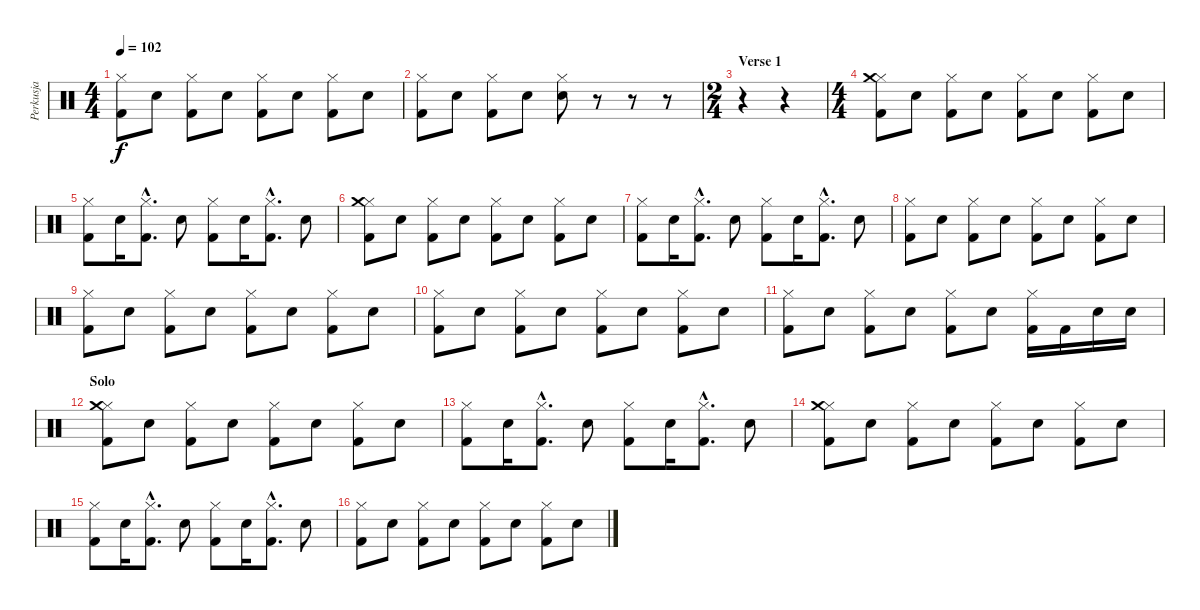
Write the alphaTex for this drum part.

\track ("Perkusja" "Perkusja") {instrument percussion}
\staff {score}
\articulation defaults
\ts (4 4)
\tempo 102
\clef neutral
\ks c
("Kick (hit) 2" "Hi-Hat (closed)").8{dy f} "Snare (hit) 2".8 ("Kick (hit) 2" "Hi-Hat (closed)").8 "Snare (hit) 2".8 ("Kick (hit) 2" "Hi-Hat (closed)").8 "Snare (hit) 2".8 ("Kick (hit) 2" "Hi-Hat (closed)").8 "Snare (hit) 2".8 |
("Kick (hit) 2" "Hi-Hat (closed)").8 "Snare (hit) 2".8 ("Kick (hit) 2" "Hi-Hat (closed)").8 "Snare (hit) 2".8 ("Snare (hit) 2" "Hi-Hat (closed)").8 r.8 r.8 r.8 |
\ts (2 4)
\section ("" "Verse 1")
r.4 r.4 |
\ts (4 4)
("Kick (hit) 2" "Hi-Hat (closed)" "Crash medium (hit)").8 "Snare (hit) 2".8 ("Kick (hit) 2" "Hi-Hat (closed)").8 "Snare (hit) 2".8 ("Kick (hit) 2" "Hi-Hat (closed)").8 "Snare (hit) 2".8 ("Kick (hit) 2" "Hi-Hat (closed)").8 "Snare (hit) 2".8 |
("Kick (hit) 2" "Hi-Hat (closed)").8 "Snare (hit) 2".16 ("Kick (hit) 2"{hac} "Hi-Hat (closed)"{hac}).8{d} "Snare (hit) 2".8 ("Kick (hit) 2" "Hi-Hat (closed)").8 "Snare (hit) 2".16 ("Kick (hit) 2"{hac} "Hi-Hat (closed)"{hac}).8{d} "Snare (hit) 2".8 |
("Kick (hit) 2" "Hi-Hat (closed)" "Crash medium (hit)").8 "Snare (hit) 2".8 ("Kick (hit) 2" "Hi-Hat (closed)").8 "Snare (hit) 2".8 ("Kick (hit) 2" "Hi-Hat (closed)").8 "Snare (hit) 2".8 ("Kick (hit) 2" "Hi-Hat (closed)").8 "Snare (hit) 2".8 |
("Kick (hit) 2" "Hi-Hat (closed)").8 "Snare (hit) 2".16 ("Kick (hit) 2"{hac} "Hi-Hat (closed)"{hac}).8{d} "Snare (hit) 2".8 ("Kick (hit) 2" "Hi-Hat (closed)").8 "Snare (hit) 2".16 ("Kick (hit) 2"{hac} "Hi-Hat (closed)"{hac}).8{d} "Snare (hit) 2".8 |
("Kick (hit) 2" "Hi-Hat (closed)").8 "Snare (hit) 2".8 ("Kick (hit) 2" "Hi-Hat (closed)").8 "Snare (hit) 2".8 ("Kick (hit) 2" "Hi-Hat (closed)").8 "Snare (hit) 2".8 ("Kick (hit) 2" "Hi-Hat (closed)").8 "Snare (hit) 2".8 |
("Kick (hit) 2" "Hi-Hat (closed)").8 "Snare (hit) 2".8 ("Kick (hit) 2" "Hi-Hat (closed)").8 "Snare (hit) 2".8 ("Kick (hit) 2" "Hi-Hat (closed)").8 "Snare (hit) 2".8 ("Kick (hit) 2" "Hi-Hat (closed)").8 "Snare (hit) 2".8 |
("Kick (hit) 2" "Hi-Hat (closed)").8 "Snare (hit) 2".8 ("Kick (hit) 2" "Hi-Hat (closed)").8 "Snare (hit) 2".8 ("Kick (hit) 2" "Hi-Hat (closed)").8 "Snare (hit) 2".8 ("Kick (hit) 2" "Hi-Hat (closed)").8 "Snare (hit) 2".8 |
("Kick (hit) 2" "Hi-Hat (closed)").8 "Snare (hit) 2".8 ("Kick (hit) 2" "Hi-Hat (closed)").8 "Snare (hit) 2".8 ("Kick (hit) 2" "Hi-Hat (closed)").8 "Snare (hit) 2".8 ("Kick (hit) 2" "Hi-Hat (closed)").16 "Kick (hit) 2".16 "Snare (hit) 2".16 "Snare (hit) 2".16 |
\section ("" "Solo")
("Kick (hit) 2" "Hi-Hat (closed)" "Crash medium (hit)").8 "Snare (hit) 2".8 ("Kick (hit) 2" "Hi-Hat (closed)").8 "Snare (hit) 2".8 ("Kick (hit) 2" "Hi-Hat (closed)").8 "Snare (hit) 2".8 ("Kick (hit) 2" "Hi-Hat (closed)").8 "Snare (hit) 2".8 |
("Kick (hit) 2" "Hi-Hat (closed)").8 "Snare (hit) 2".16 ("Kick (hit) 2"{hac} "Hi-Hat (closed)"{hac}).8{d} "Snare (hit) 2".8 ("Kick (hit) 2" "Hi-Hat (closed)").8 "Snare (hit) 2".16 ("Kick (hit) 2"{hac} "Hi-Hat (closed)"{hac}).8{d} "Snare (hit) 2".8 |
("Kick (hit) 2" "Hi-Hat (closed)" "Crash medium (hit)").8 "Snare (hit) 2".8 ("Kick (hit) 2" "Hi-Hat (closed)").8 "Snare (hit) 2".8 ("Kick (hit) 2" "Hi-Hat (closed)").8 "Snare (hit) 2".8 ("Kick (hit) 2" "Hi-Hat (closed)").8 "Snare (hit) 2".8 |
("Kick (hit) 2" "Hi-Hat (closed)").8 "Snare (hit) 2".16 ("Kick (hit) 2"{hac} "Hi-Hat (closed)"{hac}).8{d} "Snare (hit) 2".8 ("Kick (hit) 2" "Hi-Hat (closed)").8 "Snare (hit) 2".16 ("Kick (hit) 2"{hac} "Hi-Hat (closed)"{hac}).8{d} "Snare (hit) 2".8 |
("Kick (hit) 2" "Hi-Hat (closed)").8 "Snare (hit) 2".8 ("Kick (hit) 2" "Hi-Hat (closed)").8 "Snare (hit) 2".8 ("Kick (hit) 2" "Hi-Hat (closed)").8 "Snare (hit) 2".8 ("Kick (hit) 2" "Hi-Hat (closed)").8 "Snare (hit) 2".8
